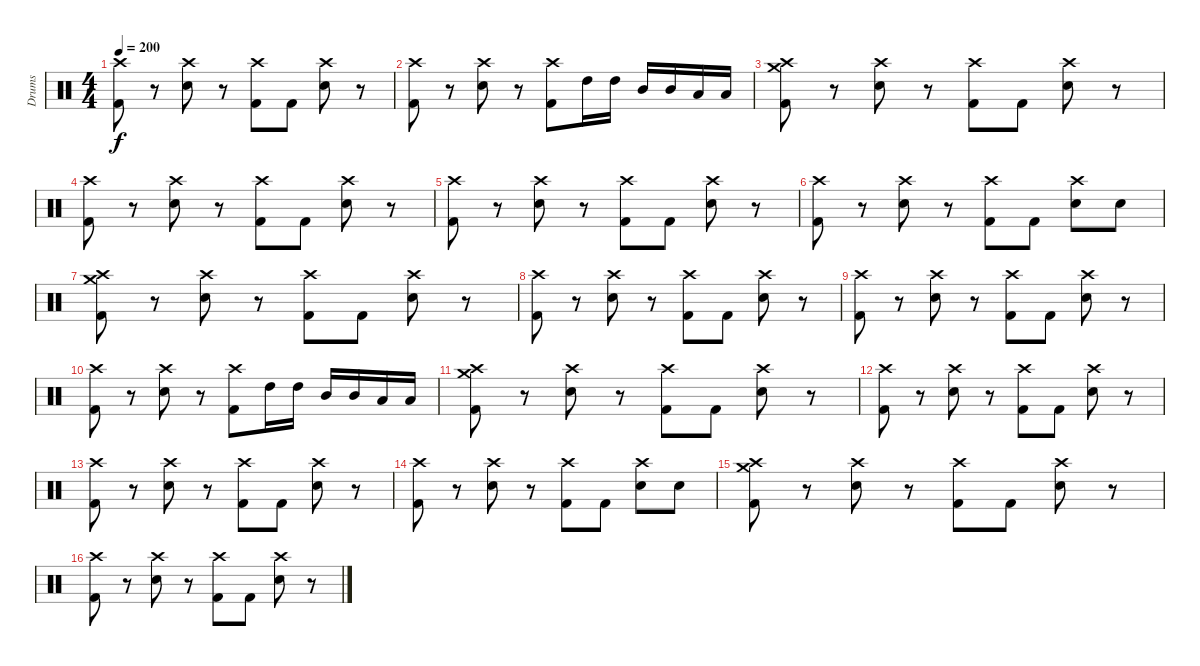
\track ("Drums" "Drums") {instrument percussion}
\staff {score}
\articulation defaults
\ts (4 4)
\tempo 200
\clef neutral
\ks c
("Crash high (hit)" "Kick (hit) 2").8{dy f} r.8 ("Crash high (hit)" "Snare (hit) 2").8 r.8 ("Crash high (hit)" "Kick (hit) 2").8 "Kick (hit) 2".8 ("Crash high (hit)" "Snare (hit) 2").8 r.8 |
("Crash high (hit)" "Kick (hit) 2").8 r.8 ("Crash high (hit)" "Snare (hit) 2").8 r.8 ("Crash high (hit)" "Kick (hit) 2").8 "High Tom (hit)".16 "High Tom (hit)".16 "Mid Tom (hit)".16 "Mid Tom (hit)".16 "Low Tom (hit)".16 "Low Tom (hit)".16 |
("Crash high (hit)" "Crash medium (hit)" "Kick (hit) 2").8 r.8 ("Crash high (hit)" "Snare (hit) 2").8 r.8 ("Crash high (hit)" "Kick (hit) 2").8 "Kick (hit) 2".8 ("Crash high (hit)" "Snare (hit) 2").8 r.8 |
("Crash high (hit)" "Kick (hit) 2").8 r.8 ("Crash high (hit)" "Snare (hit) 2").8 r.8 ("Crash high (hit)" "Kick (hit) 2").8 "Kick (hit) 2".8 ("Crash high (hit)" "Snare (hit) 2").8 r.8 |
("Crash high (hit)" "Kick (hit) 2").8 r.8 ("Crash high (hit)" "Snare (hit) 2").8 r.8 ("Crash high (hit)" "Kick (hit) 2").8 "Kick (hit) 2".8 ("Crash high (hit)" "Snare (hit) 2").8 r.8 |
("Crash high (hit)" "Kick (hit) 2").8 r.8 ("Crash high (hit)" "Snare (hit) 2").8 r.8 ("Crash high (hit)" "Kick (hit) 2").8 "Kick (hit) 2".8 ("Crash high (hit)" "Snare (hit) 2").8 "Snare (hit) 2".8 |
("Crash high (hit)" "Crash medium (hit)" "Kick (hit) 2").8 r.8 ("Crash high (hit)" "Snare (hit) 2").8 r.8 ("Crash high (hit)" "Kick (hit) 2").8 "Kick (hit) 2".8 ("Crash high (hit)" "Snare (hit) 2").8 r.8 |
("Crash high (hit)" "Kick (hit) 2").8 r.8 ("Crash high (hit)" "Snare (hit) 2").8 r.8 ("Crash high (hit)" "Kick (hit) 2").8 "Kick (hit) 2".8 ("Crash high (hit)" "Snare (hit) 2").8 r.8 |
("Crash high (hit)" "Kick (hit) 2").8 r.8 ("Crash high (hit)" "Snare (hit) 2").8 r.8 ("Crash high (hit)" "Kick (hit) 2").8 "Kick (hit) 2".8 ("Crash high (hit)" "Snare (hit) 2").8 r.8 |
("Crash high (hit)" "Kick (hit) 2").8 r.8 ("Crash high (hit)" "Snare (hit) 2").8 r.8 ("Crash high (hit)" "Kick (hit) 2").8 "High Tom (hit)".16 "High Tom (hit)".16 "Mid Tom (hit)".16 "Mid Tom (hit)".16 "Low Tom (hit)".16 "Low Tom (hit)".16 |
("Crash high (hit)" "Crash medium (hit)" "Kick (hit) 2").8 r.8 ("Crash high (hit)" "Snare (hit) 2").8 r.8 ("Crash high (hit)" "Kick (hit) 2").8 "Kick (hit) 2".8 ("Crash high (hit)" "Snare (hit) 2").8 r.8 |
("Crash high (hit)" "Kick (hit) 2").8 r.8 ("Crash high (hit)" "Snare (hit) 2").8 r.8 ("Crash high (hit)" "Kick (hit) 2").8 "Kick (hit) 2".8 ("Crash high (hit)" "Snare (hit) 2").8 r.8 |
("Crash high (hit)" "Kick (hit) 2").8 r.8 ("Crash high (hit)" "Snare (hit) 2").8 r.8 ("Crash high (hit)" "Kick (hit) 2").8 "Kick (hit) 2".8 ("Crash high (hit)" "Snare (hit) 2").8 r.8 |
("Crash high (hit)" "Kick (hit) 2").8 r.8 ("Crash high (hit)" "Snare (hit) 2").8 r.8 ("Crash high (hit)" "Kick (hit) 2").8 "Kick (hit) 2".8 ("Crash high (hit)" "Snare (hit) 2").8 "Snare (hit) 2".8 |
("Crash high (hit)" "Crash medium (hit)" "Kick (hit) 2").8 r.8 ("Crash high (hit)" "Snare (hit) 2").8 r.8 ("Crash high (hit)" "Kick (hit) 2").8 "Kick (hit) 2".8 ("Crash high (hit)" "Snare (hit) 2").8 r.8 |
("Crash high (hit)" "Kick (hit) 2").8 r.8 ("Crash high (hit)" "Snare (hit) 2").8 r.8 ("Crash high (hit)" "Kick (hit) 2").8 "Kick (hit) 2".8 ("Crash high (hit)" "Snare (hit) 2").8 r.8
